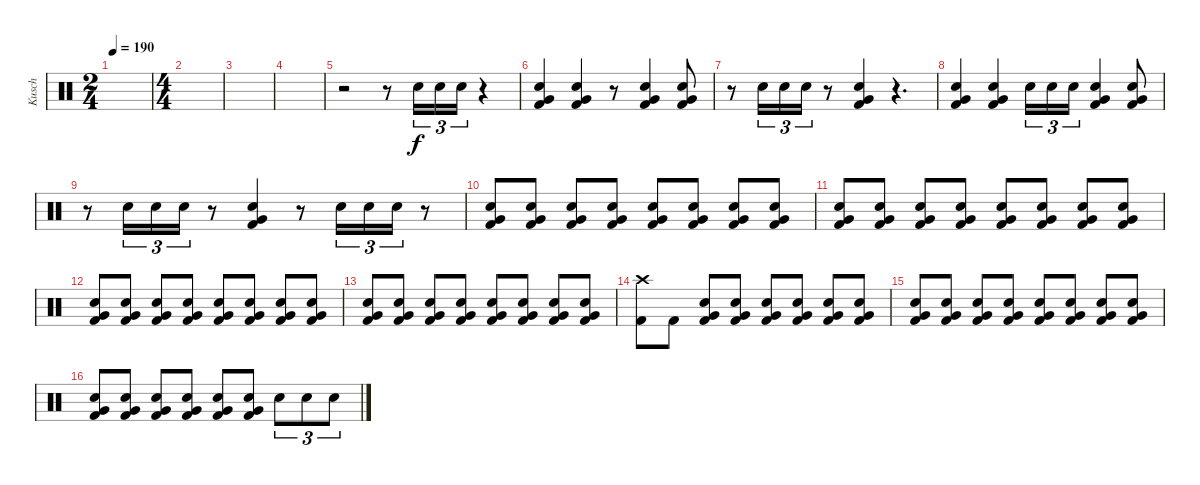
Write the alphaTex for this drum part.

\track ("Kusch" "Kusch") {instrument percussion}
\staff {score}
\articulation defaults
\ts (2 4)
\tempo 190
\clef neutral
\ks c
|
\ts (4 4)
|
|
|
r.2 r.8 "Electric Snare (hit)".16{tu (3 2)} "Electric Snare (hit)".16{tu (3 2)} "Electric Snare (hit)".16{tu (3 2)} r.4 |
("Electric Snare (hit)" "Very Low Tom (hit)" "Kick (hit) 2").4 ("Electric Snare (hit)" "Very Low Tom (hit)" "Kick (hit) 2").4 r.8 ("Electric Snare (hit)" "Very Low Tom (hit)" "Kick (hit) 2").4 ("Electric Snare (hit)" "Very Low Tom (hit)" "Kick (hit) 2").8 |
r.8 "Electric Snare (hit)".16{tu (3 2)} "Electric Snare (hit)".16{tu (3 2)} "Electric Snare (hit)".16{tu (3 2)} r.8 ("Electric Snare (hit)" "Very Low Tom (hit)" "Kick (hit) 2").4 r.4{d} |
("Electric Snare (hit)" "Very Low Tom (hit)" "Kick (hit) 2").4 ("Electric Snare (hit)" "Very Low Tom (hit)" "Kick (hit) 2").4 "Electric Snare (hit)".16{tu (3 2)} "Electric Snare (hit)".16{tu (3 2)} "Electric Snare (hit)".16{tu (3 2)} ("Electric Snare (hit)" "Very Low Tom (hit)" "Kick (hit) 2").4 ("Electric Snare (hit)" "Very Low Tom (hit)" "Kick (hit) 2").8 |
r.8 "Electric Snare (hit)".16{tu (3 2)} "Electric Snare (hit)".16{tu (3 2)} "Electric Snare (hit)".16{tu (3 2)} r.8 ("Electric Snare (hit)" "Very Low Tom (hit)" "Kick (hit) 2").4 r.8 "Electric Snare (hit)".16{tu (3 2)} "Electric Snare (hit)".16{tu (3 2)} "Electric Snare (hit)".16{tu (3 2)} r.8 |
("Electric Snare (hit)" "Very Low Tom (hit)" "Kick (hit) 2").8 ("Electric Snare (hit)" "Very Low Tom (hit)" "Kick (hit) 2").8 ("Electric Snare (hit)" "Very Low Tom (hit)" "Kick (hit) 2").8 ("Electric Snare (hit)" "Very Low Tom (hit)" "Kick (hit) 2").8 ("Electric Snare (hit)" "Very Low Tom (hit)" "Kick (hit) 2").8 ("Electric Snare (hit)" "Very Low Tom (hit)" "Kick (hit) 2").8 ("Electric Snare (hit)" "Very Low Tom (hit)" "Kick (hit) 2").8 ("Electric Snare (hit)" "Very Low Tom (hit)" "Kick (hit) 2").8 |
("Electric Snare (hit)" "Very Low Tom (hit)" "Kick (hit) 2").8 ("Electric Snare (hit)" "Very Low Tom (hit)" "Kick (hit) 2").8 ("Electric Snare (hit)" "Very Low Tom (hit)" "Kick (hit) 2").8 ("Electric Snare (hit)" "Very Low Tom (hit)" "Kick (hit) 2").8 ("Electric Snare (hit)" "Very Low Tom (hit)" "Kick (hit) 2").8 ("Electric Snare (hit)" "Very Low Tom (hit)" "Kick (hit) 2").8 ("Electric Snare (hit)" "Very Low Tom (hit)" "Kick (hit) 2").8 ("Electric Snare (hit)" "Very Low Tom (hit)" "Kick (hit) 2").8 |
("Electric Snare (hit)" "Very Low Tom (hit)" "Kick (hit) 2").8 ("Electric Snare (hit)" "Very Low Tom (hit)" "Kick (hit) 2").8 ("Electric Snare (hit)" "Very Low Tom (hit)" "Kick (hit) 2").8 ("Electric Snare (hit)" "Very Low Tom (hit)" "Kick (hit) 2").8 ("Electric Snare (hit)" "Very Low Tom (hit)" "Kick (hit) 2").8 ("Electric Snare (hit)" "Very Low Tom (hit)" "Kick (hit) 2").8 ("Electric Snare (hit)" "Very Low Tom (hit)" "Kick (hit) 2").8 ("Electric Snare (hit)" "Very Low Tom (hit)" "Kick (hit) 2").8 |
("Electric Snare (hit)" "Very Low Tom (hit)" "Kick (hit) 2").8 ("Electric Snare (hit)" "Very Low Tom (hit)" "Kick (hit) 2").8 ("Electric Snare (hit)" "Very Low Tom (hit)" "Kick (hit) 2").8 ("Electric Snare (hit)" "Very Low Tom (hit)" "Kick (hit) 2").8 ("Electric Snare (hit)" "Very Low Tom (hit)" "Kick (hit) 2").8 ("Electric Snare (hit)" "Very Low Tom (hit)" "Kick (hit) 2").8 ("Electric Snare (hit)" "Very Low Tom (hit)" "Kick (hit) 2").8 ("Electric Snare (hit)" "Very Low Tom (hit)" "Kick (hit) 2").8 |
("Crash high (hit)" "Kick (hit) 2").8 "Kick (hit) 2".8 ("Electric Snare (hit)" "Very Low Tom (hit)" "Kick (hit) 2").8 ("Electric Snare (hit)" "Very Low Tom (hit)" "Kick (hit) 2").8 ("Electric Snare (hit)" "Very Low Tom (hit)" "Kick (hit) 2").8 ("Electric Snare (hit)" "Very Low Tom (hit)" "Kick (hit) 2").8 ("Electric Snare (hit)" "Very Low Tom (hit)" "Kick (hit) 2").8 ("Electric Snare (hit)" "Very Low Tom (hit)" "Kick (hit) 2").8 |
("Electric Snare (hit)" "Very Low Tom (hit)" "Kick (hit) 2").8 ("Electric Snare (hit)" "Very Low Tom (hit)" "Kick (hit) 2").8 ("Electric Snare (hit)" "Very Low Tom (hit)" "Kick (hit) 2").8 ("Electric Snare (hit)" "Very Low Tom (hit)" "Kick (hit) 2").8 ("Electric Snare (hit)" "Very Low Tom (hit)" "Kick (hit) 2").8 ("Electric Snare (hit)" "Very Low Tom (hit)" "Kick (hit) 2").8 ("Electric Snare (hit)" "Very Low Tom (hit)" "Kick (hit) 2").8 ("Electric Snare (hit)" "Very Low Tom (hit)" "Kick (hit) 2").8 |
("Electric Snare (hit)" "Very Low Tom (hit)" "Kick (hit) 2").8 ("Electric Snare (hit)" "Very Low Tom (hit)" "Kick (hit) 2").8 ("Electric Snare (hit)" "Very Low Tom (hit)" "Kick (hit) 2").8 ("Electric Snare (hit)" "Very Low Tom (hit)" "Kick (hit) 2").8 ("Electric Snare (hit)" "Very Low Tom (hit)" "Kick (hit) 2").8 ("Electric Snare (hit)" "Very Low Tom (hit)" "Kick (hit) 2").8 "Electric Snare (hit)".8{tu (3 2)} "Electric Snare (hit)".8{tu (3 2)} "Electric Snare (hit)".8{tu (3 2)}
